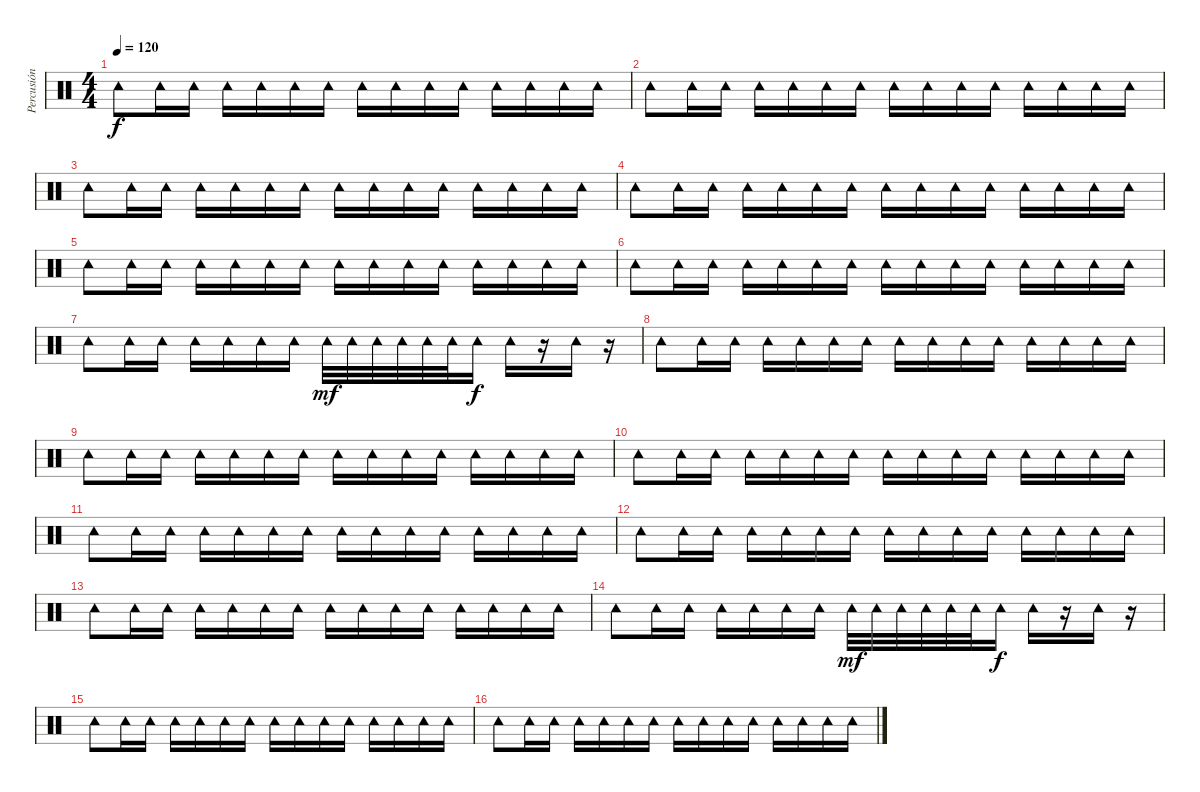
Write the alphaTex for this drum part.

\track ("Percusión" "Percusión") {instrument percussion}
\staff {score}
\articulation defaults
\ts (4 4)
\section ("" "")
\tempo 120
\clef neutral
\ks c "Tambourine (hit)".8{dy f} "Tambourine (hit)".16 "Tambourine (hit)".16 "Tambourine (hit)".16 "Tambourine (hit)".16 "Tambourine (hit)".16 "Tambourine (hit)".16 "Tambourine (hit)".16 "Tambourine (hit)".16 "Tambourine (hit)".16 "Tambourine (hit)".16 "Tambourine (hit)".16 "Tambourine (hit)".16 "Tambourine (hit)".16 "Tambourine (hit)".16
|
"Tambourine (hit)".8 "Tambourine (hit)".16 "Tambourine (hit)".16 "Tambourine (hit)".16 "Tambourine (hit)".16 "Tambourine (hit)".16 "Tambourine (hit)".16 "Tambourine (hit)".16 "Tambourine (hit)".16 "Tambourine (hit)".16 "Tambourine (hit)".16 "Tambourine (hit)".16 "Tambourine (hit)".16 "Tambourine (hit)".16 "Tambourine (hit)".16 |
"Tambourine (hit)".8 "Tambourine (hit)".16 "Tambourine (hit)".16 "Tambourine (hit)".16 "Tambourine (hit)".16 "Tambourine (hit)".16 "Tambourine (hit)".16 "Tambourine (hit)".16 "Tambourine (hit)".16 "Tambourine (hit)".16 "Tambourine (hit)".16 "Tambourine (hit)".16 "Tambourine (hit)".16 "Tambourine (hit)".16 "Tambourine (hit)".16 |
"Tambourine (hit)".8 "Tambourine (hit)".16 "Tambourine (hit)".16 "Tambourine (hit)".16 "Tambourine (hit)".16 "Tambourine (hit)".16 "Tambourine (hit)".16 "Tambourine (hit)".16 "Tambourine (hit)".16 "Tambourine (hit)".16 "Tambourine (hit)".16 "Tambourine (hit)".16 "Tambourine (hit)".16 "Tambourine (hit)".16 "Tambourine (hit)".16 |
"Tambourine (hit)".8 "Tambourine (hit)".16 "Tambourine (hit)".16 "Tambourine (hit)".16 "Tambourine (hit)".16 "Tambourine (hit)".16 "Tambourine (hit)".16 "Tambourine (hit)".16 "Tambourine (hit)".16 "Tambourine (hit)".16 "Tambourine (hit)".16 "Tambourine (hit)".16 "Tambourine (hit)".16 "Tambourine (hit)".16 "Tambourine (hit)".16 |
"Tambourine (hit)".8 "Tambourine (hit)".16 "Tambourine (hit)".16 "Tambourine (hit)".16 "Tambourine (hit)".16 "Tambourine (hit)".16 "Tambourine (hit)".16 "Tambourine (hit)".16 "Tambourine (hit)".16 "Tambourine (hit)".16 "Tambourine (hit)".16 "Tambourine (hit)".16 "Tambourine (hit)".16 "Tambourine (hit)".16 "Tambourine (hit)".16 |
"Tambourine (hit)".8 "Tambourine (hit)".16 "Tambourine (hit)".16 "Tambourine (hit)".16 "Tambourine (hit)".16 "Tambourine (hit)".16 "Tambourine (hit)".16 "Tambourine (hit)".32{dy mf} "Tambourine (hit)".32 "Tambourine (hit)".32 "Tambourine (hit)".32 "Tambourine (hit)".32 "Tambourine (hit)".32 "Tambourine (hit)".16{dy f} "Tambourine (hit)".16 r.16 "Tambourine (hit)".16 r.16 |
"Tambourine (hit)".8 "Tambourine (hit)".16 "Tambourine (hit)".16 "Tambourine (hit)".16 "Tambourine (hit)".16 "Tambourine (hit)".16 "Tambourine (hit)".16 "Tambourine (hit)".16 "Tambourine (hit)".16 "Tambourine (hit)".16 "Tambourine (hit)".16 "Tambourine (hit)".16 "Tambourine (hit)".16 "Tambourine (hit)".16 "Tambourine (hit)".16 |
"Tambourine (hit)".8 "Tambourine (hit)".16 "Tambourine (hit)".16 "Tambourine (hit)".16 "Tambourine (hit)".16 "Tambourine (hit)".16 "Tambourine (hit)".16 "Tambourine (hit)".16 "Tambourine (hit)".16 "Tambourine (hit)".16 "Tambourine (hit)".16 "Tambourine (hit)".16 "Tambourine (hit)".16 "Tambourine (hit)".16 "Tambourine (hit)".16 |
"Tambourine (hit)".8 "Tambourine (hit)".16 "Tambourine (hit)".16 "Tambourine (hit)".16 "Tambourine (hit)".16 "Tambourine (hit)".16 "Tambourine (hit)".16 "Tambourine (hit)".16 "Tambourine (hit)".16 "Tambourine (hit)".16 "Tambourine (hit)".16 "Tambourine (hit)".16 "Tambourine (hit)".16 "Tambourine (hit)".16 "Tambourine (hit)".16 |
"Tambourine (hit)".8 "Tambourine (hit)".16 "Tambourine (hit)".16 "Tambourine (hit)".16 "Tambourine (hit)".16 "Tambourine (hit)".16 "Tambourine (hit)".16 "Tambourine (hit)".16 "Tambourine (hit)".16 "Tambourine (hit)".16 "Tambourine (hit)".16 "Tambourine (hit)".16 "Tambourine (hit)".16 "Tambourine (hit)".16 "Tambourine (hit)".16 |
"Tambourine (hit)".8 "Tambourine (hit)".16 "Tambourine (hit)".16 "Tambourine (hit)".16 "Tambourine (hit)".16 "Tambourine (hit)".16 "Tambourine (hit)".16 "Tambourine (hit)".16 "Tambourine (hit)".16 "Tambourine (hit)".16 "Tambourine (hit)".16 "Tambourine (hit)".16 "Tambourine (hit)".16 "Tambourine (hit)".16 "Tambourine (hit)".16 |
"Tambourine (hit)".8 "Tambourine (hit)".16 "Tambourine (hit)".16 "Tambourine (hit)".16 "Tambourine (hit)".16 "Tambourine (hit)".16 "Tambourine (hit)".16 "Tambourine (hit)".16 "Tambourine (hit)".16 "Tambourine (hit)".16 "Tambourine (hit)".16 "Tambourine (hit)".16 "Tambourine (hit)".16 "Tambourine (hit)".16 "Tambourine (hit)".16 |
"Tambourine (hit)".8 "Tambourine (hit)".16 "Tambourine (hit)".16 "Tambourine (hit)".16 "Tambourine (hit)".16 "Tambourine (hit)".16 "Tambourine (hit)".16 "Tambourine (hit)".32{dy mf} "Tambourine (hit)".32 "Tambourine (hit)".32 "Tambourine (hit)".32 "Tambourine (hit)".32 "Tambourine (hit)".32 "Tambourine (hit)".16{dy f} "Tambourine (hit)".16 r.16 "Tambourine (hit)".16 r.16 |
"Tambourine (hit)".8 "Tambourine (hit)".16 "Tambourine (hit)".16 "Tambourine (hit)".16 "Tambourine (hit)".16 "Tambourine (hit)".16 "Tambourine (hit)".16 "Tambourine (hit)".16 "Tambourine (hit)".16 "Tambourine (hit)".16 "Tambourine (hit)".16 "Tambourine (hit)".16 "Tambourine (hit)".16 "Tambourine (hit)".16 "Tambourine (hit)".16 |
"Tambourine (hit)".8 "Tambourine (hit)".16 "Tambourine (hit)".16 "Tambourine (hit)".16 "Tambourine (hit)".16 "Tambourine (hit)".16 "Tambourine (hit)".16 "Tambourine (hit)".16 "Tambourine (hit)".16 "Tambourine (hit)".16 "Tambourine (hit)".16 "Tambourine (hit)".16 "Tambourine (hit)".16 "Tambourine (hit)".16 "Tambourine (hit)".16
